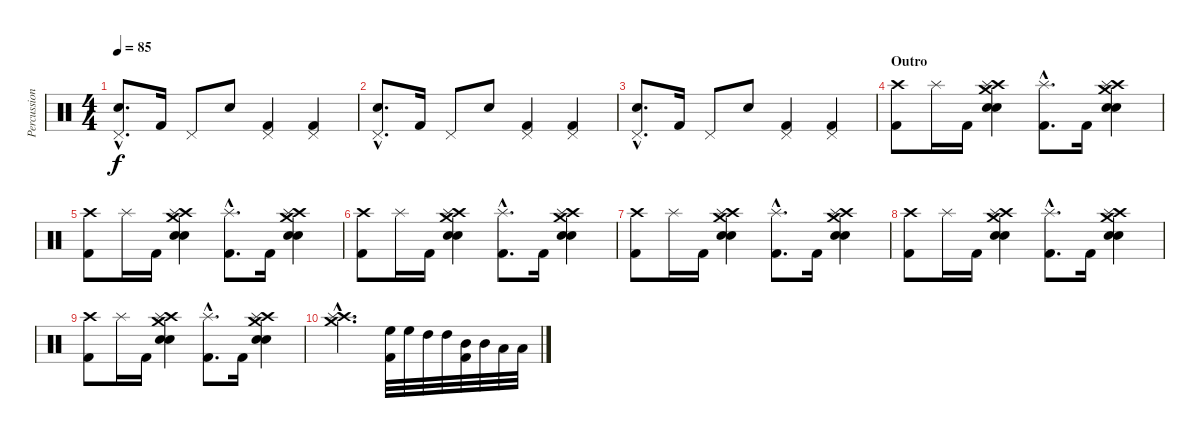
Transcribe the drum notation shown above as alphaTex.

\track ("Percussion" "Percussion") {instrument percussion}
\staff {score}
\articulation defaults
\ts (4 4)
\tempo 85
\clef neutral
\ks c
("Pedal Hi-Hat (hit)"{hac} "Electric Snare (hit)"{hac}).8{d dy f} "Kick (hit) 2".16 "Pedal Hi-Hat (hit)".8 "Electric Snare (hit)".8 ("Pedal Hi-Hat (hit)" "Kick (hit) 2").4 ("Pedal Hi-Hat (hit)" "Kick (hit) 2").4 |
("Pedal Hi-Hat (hit)"{hac} "Electric Snare (hit)"{hac}).8{d} "Kick (hit) 2".16 "Pedal Hi-Hat (hit)".8 "Electric Snare (hit)".8 ("Pedal Hi-Hat (hit)" "Kick (hit) 2").4 ("Pedal Hi-Hat (hit)" "Kick (hit) 2").4 |
("Pedal Hi-Hat (hit)"{hac} "Electric Snare (hit)"{hac}).8{d} "Kick (hit) 2".16 "Pedal Hi-Hat (hit)".8 "Electric Snare (hit)".8 ("Pedal Hi-Hat (hit)" "Kick (hit) 2").4 ("Pedal Hi-Hat (hit)" "Kick (hit) 2").4 |
\section ("" "Outro")
("Crash high (hit)" "Kick (hit) 2").8 "Splash (hit)".16 "Kick (hit) 2".16 ("Crash high (hit)" "Crash medium (hit)" "Splash (hit)" "Electric Snare (hit)" "Snare (hit) 2").4 ("Splash (hit)"{hac} "Kick (hit) 2"{hac}).8{d} "Kick (hit) 2".16 ("Crash high (hit)" "Crash medium (hit)" "Splash (hit)" "Electric Snare (hit)" "Snare (hit) 2").4 |
("Crash high (hit)" "Kick (hit) 2").8 "Splash (hit)".16 "Kick (hit) 2".16 ("Crash high (hit)" "Crash medium (hit)" "Splash (hit)" "Electric Snare (hit)" "Snare (hit) 2").4 ("Splash (hit)"{hac} "Kick (hit) 2"{hac}).8{d} "Kick (hit) 2".16 ("Crash high (hit)" "Crash medium (hit)" "Splash (hit)" "Electric Snare (hit)" "Snare (hit) 2").4 |
("Crash high (hit)" "Kick (hit) 2").8 "Splash (hit)".16 "Kick (hit) 2".16 ("Crash high (hit)" "Crash medium (hit)" "Splash (hit)" "Electric Snare (hit)" "Snare (hit) 2").4 ("Splash (hit)"{hac} "Kick (hit) 2"{hac}).8{d} "Kick (hit) 2".16 ("Crash high (hit)" "Crash medium (hit)" "Splash (hit)" "Electric Snare (hit)" "Snare (hit) 2").4 |
("Crash high (hit)" "Kick (hit) 2").8 "Splash (hit)".16 "Kick (hit) 2".16 ("Crash high (hit)" "Crash medium (hit)" "Splash (hit)" "Electric Snare (hit)" "Snare (hit) 2").4 ("Splash (hit)"{hac} "Kick (hit) 2"{hac}).8{d} "Kick (hit) 2".16 ("Crash high (hit)" "Crash medium (hit)" "Splash (hit)" "Electric Snare (hit)" "Snare (hit) 2").4 |
("Crash high (hit)" "Kick (hit) 2").8 "Splash (hit)".16 "Kick (hit) 2".16 ("Crash high (hit)" "Crash medium (hit)" "Splash (hit)" "Electric Snare (hit)" "Snare (hit) 2").4 ("Splash (hit)"{hac} "Kick (hit) 2"{hac}).8{d} "Kick (hit) 2".16 ("Crash high (hit)" "Crash medium (hit)" "Splash (hit)" "Electric Snare (hit)" "Snare (hit) 2").4 |
("Crash high (hit)" "Kick (hit) 2").8 "Splash (hit)".16 "Kick (hit) 2".16 ("Crash high (hit)" "Crash medium (hit)" "Splash (hit)" "Electric Snare (hit)" "Snare (hit) 2").4 ("Splash (hit)"{hac} "Kick (hit) 2"{hac}).8{d} "Kick (hit) 2".16 ("Crash high (hit)" "Crash medium (hit)" "Splash (hit)" "Electric Snare (hit)" "Snare (hit) 2").4 |
("Crash high (hit)"{hac} "Splash (hit)"{hac} "Crash medium (hit)"{hac}).2{d} ("High Floor Tom (hit)" "Kick (hit) 2").32 "High Floor Tom (hit)".32 "High Tom (hit)".32 "High Tom (hit)".32 ("Mid Tom (hit)" "Kick (hit) 2").32 "Mid Tom (hit)".32 "Low Tom (hit)".32 "Low Tom (hit)".32
